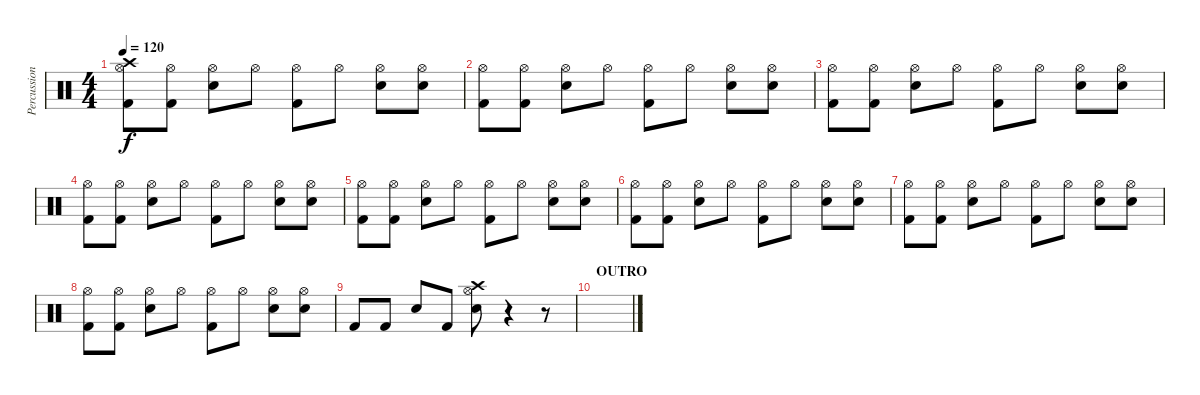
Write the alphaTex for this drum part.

\track ("Percussion" "Percussion") {instrument percussion}
\staff {score}
\articulation defaults
\ts (4 4)
\tempo 120
\clef neutral
\ks c
("Kick (hit) 2" "Hi-Hat (open)" "Crash high (hit)").8{dy f} ("Kick (hit) 2" "Hi-Hat (open)").8 ("Snare (hit) 2" "Hi-Hat (open)").8 "Hi-Hat (open)".8 ("Kick (hit) 2" "Hi-Hat (open)").8 "Hi-Hat (open)".8 ("Snare (hit) 2" "Hi-Hat (open)").8 ("Snare (hit) 2" "Hi-Hat (open)").8 |
("Kick (hit) 2" "Hi-Hat (open)").8 ("Kick (hit) 2" "Hi-Hat (open)").8 ("Snare (hit) 2" "Hi-Hat (open)").8 "Hi-Hat (open)".8 ("Kick (hit) 2" "Hi-Hat (open)").8 "Hi-Hat (open)".8 ("Snare (hit) 2" "Hi-Hat (open)").8 ("Snare (hit) 2" "Hi-Hat (open)").8 |
("Kick (hit) 2" "Hi-Hat (open)").8 ("Kick (hit) 2" "Hi-Hat (open)").8 ("Snare (hit) 2" "Hi-Hat (open)").8 "Hi-Hat (open)".8 ("Kick (hit) 2" "Hi-Hat (open)").8 "Hi-Hat (open)".8 ("Snare (hit) 2" "Hi-Hat (open)").8 ("Snare (hit) 2" "Hi-Hat (open)").8 |
("Kick (hit) 2" "Hi-Hat (open)").8 ("Kick (hit) 2" "Hi-Hat (open)").8 ("Snare (hit) 2" "Hi-Hat (open)").8 "Hi-Hat (open)".8 ("Kick (hit) 2" "Hi-Hat (open)").8 "Hi-Hat (open)".8 ("Snare (hit) 2" "Hi-Hat (open)").8 ("Snare (hit) 2" "Hi-Hat (open)").8 |
("Kick (hit) 2" "Hi-Hat (open)").8 ("Kick (hit) 2" "Hi-Hat (open)").8 ("Snare (hit) 2" "Hi-Hat (open)").8 "Hi-Hat (open)".8 ("Kick (hit) 2" "Hi-Hat (open)").8 "Hi-Hat (open)".8 ("Snare (hit) 2" "Hi-Hat (open)").8 ("Snare (hit) 2" "Hi-Hat (open)").8 |
("Kick (hit) 2" "Hi-Hat (open)").8 ("Kick (hit) 2" "Hi-Hat (open)").8 ("Snare (hit) 2" "Hi-Hat (open)").8 "Hi-Hat (open)".8 ("Kick (hit) 2" "Hi-Hat (open)").8 "Hi-Hat (open)".8 ("Snare (hit) 2" "Hi-Hat (open)").8 ("Snare (hit) 2" "Hi-Hat (open)").8 |
("Kick (hit) 2" "Hi-Hat (open)").8 ("Kick (hit) 2" "Hi-Hat (open)").8 ("Snare (hit) 2" "Hi-Hat (open)").8 "Hi-Hat (open)".8 ("Kick (hit) 2" "Hi-Hat (open)").8 "Hi-Hat (open)".8 ("Snare (hit) 2" "Hi-Hat (open)").8 ("Snare (hit) 2" "Hi-Hat (open)").8 |
("Kick (hit) 2" "Hi-Hat (open)").8 ("Kick (hit) 2" "Hi-Hat (open)").8 ("Snare (hit) 2" "Hi-Hat (open)").8 "Hi-Hat (open)".8 ("Kick (hit) 2" "Hi-Hat (open)").8 "Hi-Hat (open)".8 ("Snare (hit) 2" "Hi-Hat (open)").8 ("Snare (hit) 2" "Hi-Hat (open)").8 |
"Kick (hit) 2".8 "Kick (hit) 2".8 "Snare (hit) 2".8 "Kick (hit) 2".8 ("Snare (hit) 2" "Hi-Hat (open)" "Crash high (hit)").8 r.4 r.8 |
\section ("" "OUTRO")
